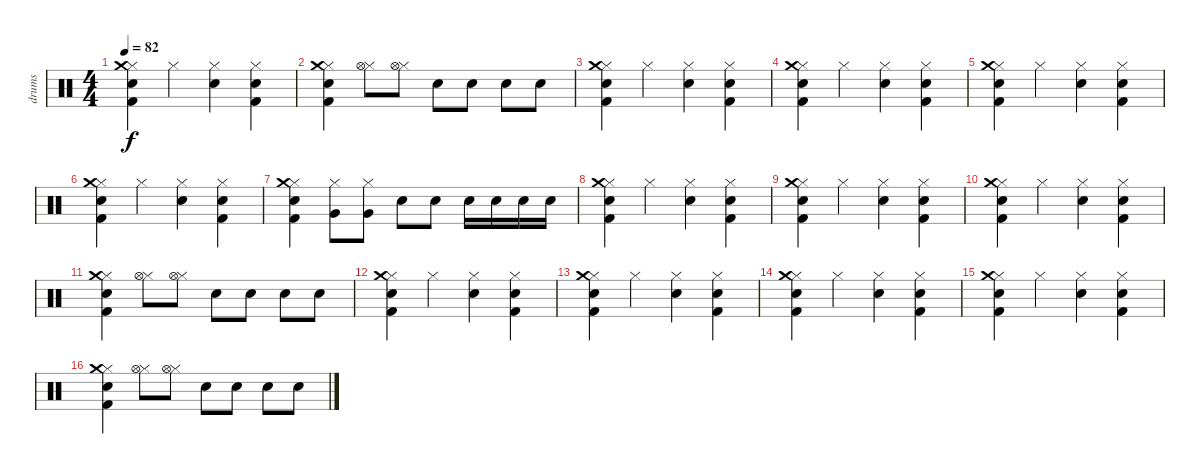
\track ("drums" "drums") {instrument percussion}
\staff {score}
\articulation defaults
\ts (4 4)
\tempo 82
\clef neutral
\ks c
("Hi-Hat (closed)" "Snare (hit) 2" "Kick (hit) 2" "Crash medium (hit)").4{dy f} "Hi-Hat (closed)".4 ("Hi-Hat (closed)" "Hand Clap (hit)").4 ("Hi-Hat (closed)" "Snare (hit) 2" "Kick (hit) 2").4 |
("Hi-Hat (closed)" "Snare (hit) 2" "Kick (hit) 2" "Crash medium (hit)").4 ("Hi-Hat (closed)" "Hi-Hat (open)").8 ("Hi-Hat (closed)" "Hi-Hat (open)").8 "Electric Snare (hit)".8 "Electric Snare (hit)".8 "Snare (hit) 2".8 "Snare (hit) 2".8 |
("Hi-Hat (closed)" "Snare (hit) 2" "Kick (hit) 2" "Crash medium (hit)").4 "Hi-Hat (closed)".4 ("Hi-Hat (closed)" "Hand Clap (hit)").4 ("Hi-Hat (closed)" "Snare (hit) 2" "Kick (hit) 2").4 |
("Hi-Hat (closed)" "Snare (hit) 2" "Kick (hit) 2" "Crash medium (hit)").4 "Hi-Hat (closed)".4 ("Hi-Hat (closed)" "Hand Clap (hit)").4 ("Hi-Hat (closed)" "Snare (hit) 2" "Kick (hit) 2").4 |
("Hi-Hat (closed)" "Snare (hit) 2" "Kick (hit) 2" "Crash medium (hit)").4 "Hi-Hat (closed)".4 ("Hi-Hat (closed)" "Hand Clap (hit)").4 ("Hi-Hat (closed)" "Snare (hit) 2" "Kick (hit) 2").4 |
("Hi-Hat (closed)" "Snare (hit) 2" "Kick (hit) 2" "Crash medium (hit)").4 "Hi-Hat (closed)".4 ("Hi-Hat (closed)" "Hand Clap (hit)").4 ("Hi-Hat (closed)" "Snare (hit) 2" "Kick (hit) 2").4 |
("Hi-Hat (closed)" "Snare (hit) 2" "Kick (hit) 2" "Crash medium (hit)").4 ("Hi-Hat (closed)" "Very Low Tom (hit)").8 ("Hi-Hat (closed)" "Very Low Tom (hit)").8 "Snare (hit) 2".8 "Snare (hit) 2".8 "Electric Snare (hit)".16 "Electric Snare (hit)".16 "Electric Snare (hit)".16 "Electric Snare (hit)".16 |
("Hi-Hat (closed)" "Snare (hit) 2" "Kick (hit) 2" "Crash medium (hit)").4 "Hi-Hat (closed)".4 ("Hi-Hat (closed)" "Hand Clap (hit)").4 ("Hi-Hat (closed)" "Snare (hit) 2" "Kick (hit) 2").4 |
("Hi-Hat (closed)" "Snare (hit) 2" "Kick (hit) 2" "Crash medium (hit)").4 "Hi-Hat (closed)".4 ("Hi-Hat (closed)" "Hand Clap (hit)").4 ("Hi-Hat (closed)" "Snare (hit) 2" "Kick (hit) 2").4 |
("Hi-Hat (closed)" "Snare (hit) 2" "Kick (hit) 2" "Crash medium (hit)").4 "Hi-Hat (closed)".4 ("Hi-Hat (closed)" "Hand Clap (hit)").4 ("Hi-Hat (closed)" "Snare (hit) 2" "Kick (hit) 2").4 |
("Hi-Hat (closed)" "Snare (hit) 2" "Kick (hit) 2" "Crash medium (hit)").4 ("Hi-Hat (closed)" "Hi-Hat (open)").8 ("Hi-Hat (closed)" "Hi-Hat (open)").8 "Electric Snare (hit)".8 "Electric Snare (hit)".8 "Snare (hit) 2".8 "Snare (hit) 2".8 |
("Hi-Hat (closed)" "Snare (hit) 2" "Kick (hit) 2" "Crash medium (hit)").4 "Hi-Hat (closed)".4 ("Hi-Hat (closed)" "Hand Clap (hit)").4 ("Hi-Hat (closed)" "Snare (hit) 2" "Kick (hit) 2").4 |
("Hi-Hat (closed)" "Snare (hit) 2" "Kick (hit) 2" "Crash medium (hit)").4 "Hi-Hat (closed)".4 ("Hi-Hat (closed)" "Hand Clap (hit)").4 ("Hi-Hat (closed)" "Snare (hit) 2" "Kick (hit) 2").4 |
("Hi-Hat (closed)" "Snare (hit) 2" "Kick (hit) 2" "Crash medium (hit)").4 "Hi-Hat (closed)".4 ("Hi-Hat (closed)" "Hand Clap (hit)").4 ("Hi-Hat (closed)" "Snare (hit) 2" "Kick (hit) 2").4 |
("Hi-Hat (closed)" "Snare (hit) 2" "Kick (hit) 2" "Crash medium (hit)").4 "Hi-Hat (closed)".4 ("Hi-Hat (closed)" "Hand Clap (hit)").4 ("Hi-Hat (closed)" "Snare (hit) 2" "Kick (hit) 2").4 |
("Hi-Hat (closed)" "Snare (hit) 2" "Kick (hit) 2" "Crash medium (hit)").4 ("Hi-Hat (closed)" "Hi-Hat (open)").8 ("Hi-Hat (closed)" "Hi-Hat (open)").8 "Electric Snare (hit)".8 "Electric Snare (hit)".8 "Snare (hit) 2".8 "Snare (hit) 2".8
